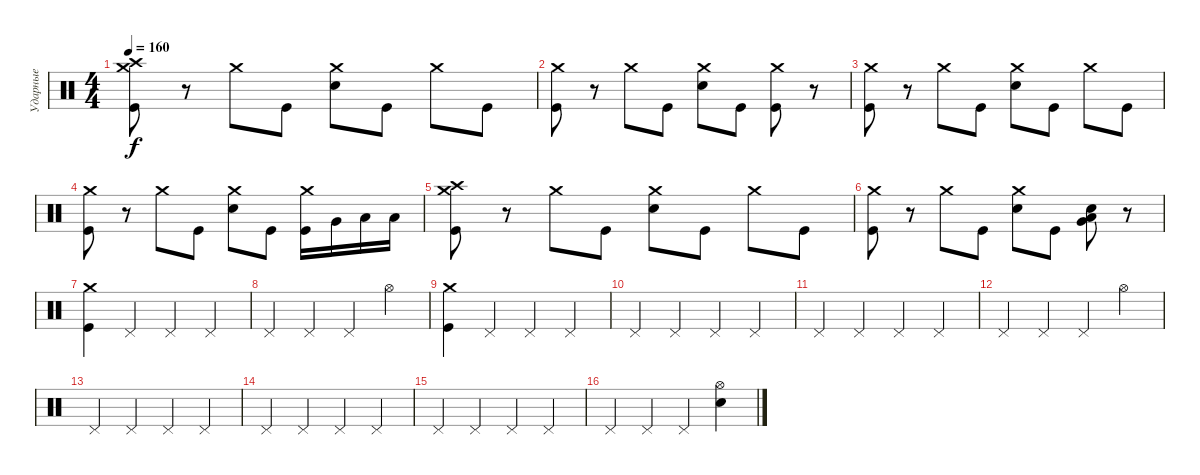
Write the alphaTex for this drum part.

\track ("Ударные" "Ударные") {instrument percussion}
\staff {score}
\articulation defaults
\ts (4 4)
\tempo 160
\clef neutral
\ks c
("Kick (hit)" "Crash medium (hit)" "Crash high (hit)").8{dy f} r.8 "Crash medium (hit)".8 "Kick (hit)".8 ("Electric Snare (hit)" "Crash medium (hit)").8 "Kick (hit)".8 "Crash medium (hit)".8 "Kick (hit)".8 |
("Kick (hit)" "Crash medium (hit)").8 r.8 "Crash medium (hit)".8 "Kick (hit)".8 ("Electric Snare (hit)" "Crash medium (hit)").8 "Kick (hit)".8 ("Kick (hit)" "Crash medium (hit)").8 r.8 |
("Kick (hit)" "Crash medium (hit)").8 r.8 "Crash medium (hit)".8 "Kick (hit)".8 ("Electric Snare (hit)" "Crash medium (hit)").8 "Kick (hit)".8 "Crash medium (hit)".8 "Kick (hit)".8 |
("Kick (hit)" "Crash medium (hit)").8 r.8 "Crash medium (hit)".8 "Kick (hit)".8 ("Electric Snare (hit)" "Crash medium (hit)").8 "Kick (hit)".8 ("Kick (hit)" "Crash medium (hit)").16 "Very Low Tom (hit)".16 "Low Tom (hit)".16 "Low Tom (hit)".16 |
("Kick (hit)" "Crash medium (hit)" "Crash high (hit)").8 r.8 "Crash medium (hit)".8 "Kick (hit)".8 ("Electric Snare (hit)" "Crash medium (hit)").8 "Kick (hit)".8 "Crash medium (hit)".8 "Kick (hit)".8 |
("Kick (hit)" "Crash medium (hit)").8 r.8 "Crash medium (hit)".8 "Kick (hit)".8 ("Electric Snare (hit)" "Crash medium (hit)").8 "Kick (hit)".8 ("Electric Snare (hit)" "Very Low Tom (hit)" "Low Floor Tom (hit)").8 r.8 |
("Kick (hit)" "Crash medium (hit)").4 "Pedal Hi-Hat (hit)".4 "Pedal Hi-Hat (hit)".4 "Pedal Hi-Hat (hit)".4 |
"Pedal Hi-Hat (hit)".4 "Pedal Hi-Hat (hit)".4 "Pedal Hi-Hat (hit)".4 "Hi-Hat (open)".4 |
("Kick (hit)" "Crash medium (hit)").4 "Pedal Hi-Hat (hit)".4 "Pedal Hi-Hat (hit)".4 "Pedal Hi-Hat (hit)".4 |
"Pedal Hi-Hat (hit)".4 "Pedal Hi-Hat (hit)".4 "Pedal Hi-Hat (hit)".4 "Pedal Hi-Hat (hit)".4 |
"Pedal Hi-Hat (hit)".4 "Pedal Hi-Hat (hit)".4 "Pedal Hi-Hat (hit)".4 "Pedal Hi-Hat (hit)".4 |
"Pedal Hi-Hat (hit)".4 "Pedal Hi-Hat (hit)".4 "Pedal Hi-Hat (hit)".4 "Hi-Hat (open)".4 |
"Pedal Hi-Hat (hit)".4 "Pedal Hi-Hat (hit)".4 "Pedal Hi-Hat (hit)".4 "Pedal Hi-Hat (hit)".4 |
"Pedal Hi-Hat (hit)".4 "Pedal Hi-Hat (hit)".4 "Pedal Hi-Hat (hit)".4 "Pedal Hi-Hat (hit)".4 |
"Pedal Hi-Hat (hit)".4 "Pedal Hi-Hat (hit)".4 "Pedal Hi-Hat (hit)".4 "Pedal Hi-Hat (hit)".4 |
"Pedal Hi-Hat (hit)".4 "Pedal Hi-Hat (hit)".4 "Pedal Hi-Hat (hit)".4 ("Electric Snare (hit)" "Hi-Hat (open)").4
